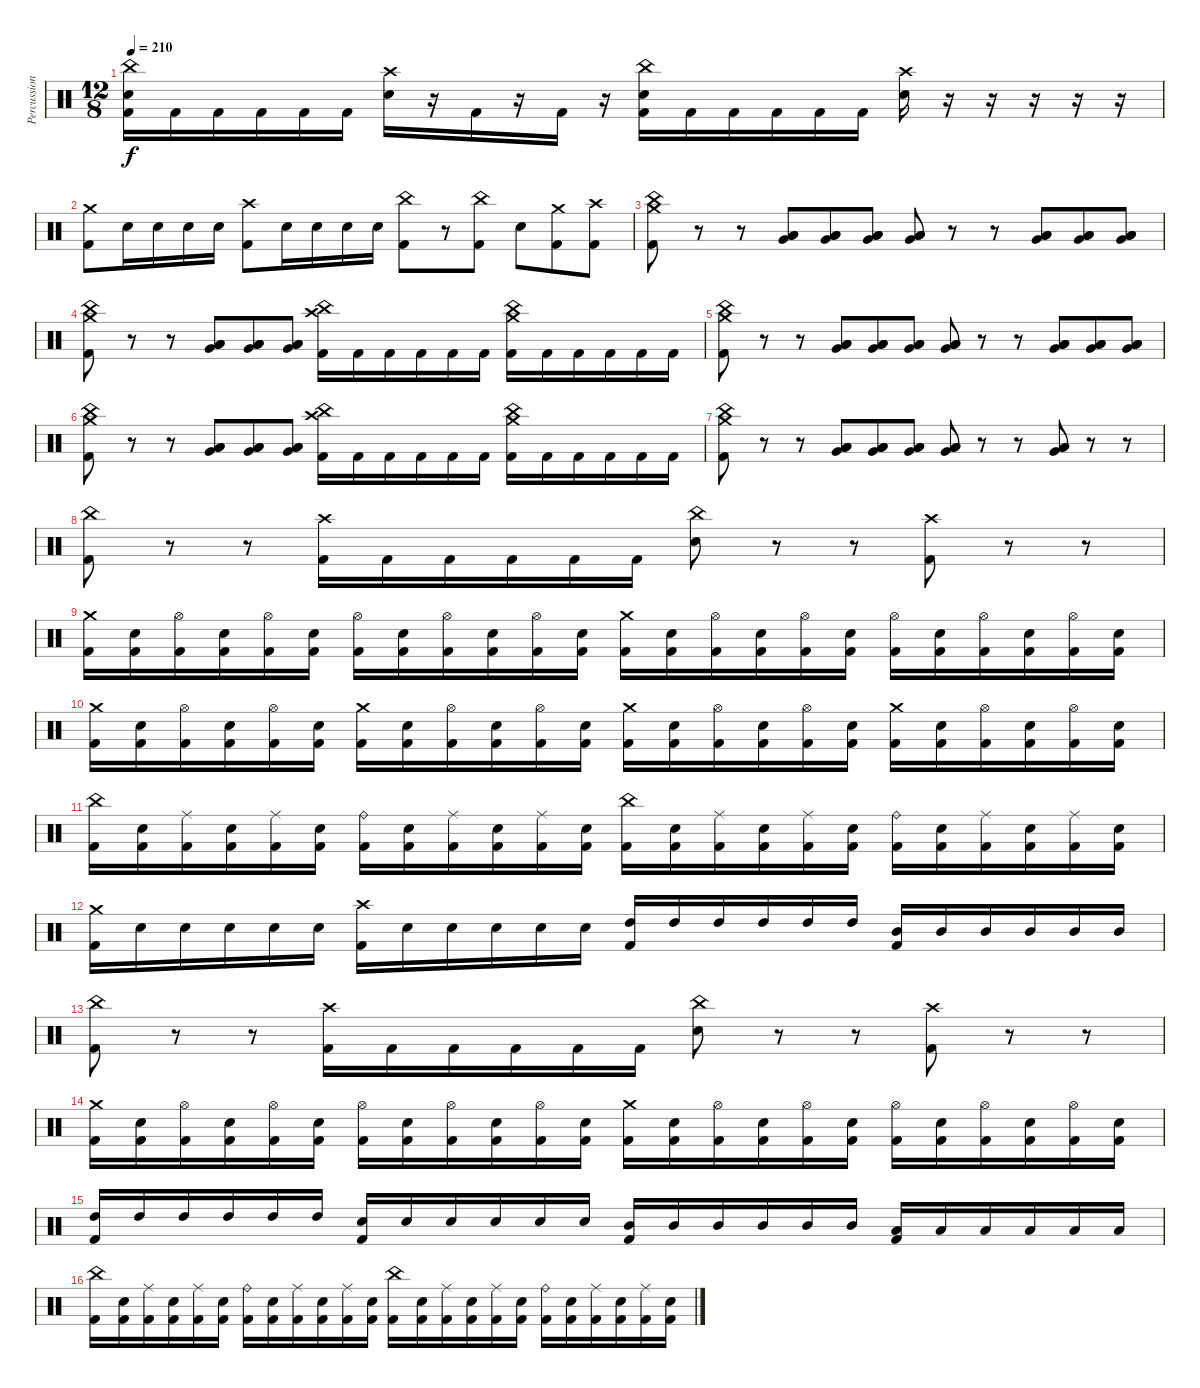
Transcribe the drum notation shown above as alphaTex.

\track ("Percussion" "Percussion") {instrument percussion}
\staff {score}
\articulation defaults
\ts (12 8)
\tempo 210
\clef neutral
\ks c
("China (hit)" "Electric Snare (hit)" "Kick (hit) 2").16{dy f} "Kick (hit) 2".16 "Kick (hit) 2".16 "Kick (hit) 2".16 "Kick (hit) 2".16 "Kick (hit) 2".16 ("Crash high (hit)" "Electric Snare (hit)").16 r.16 "Kick (hit) 2".16 r.16 "Kick (hit) 2".16 r.16 ("China (hit)" "Electric Snare (hit)" "Kick (hit) 2").16 "Kick (hit) 2".16 "Kick (hit) 2".16 "Kick (hit) 2".16 "Kick (hit) 2".16 "Kick (hit) 2".16 ("Crash high (hit)" "Electric Snare (hit)").16 r.16 r.16 r.16 r.16 r.16 |
("Crash medium (hit)" "Kick (hit) 2").8 "Electric Snare (hit)".16 "Electric Snare (hit)".16 "Electric Snare (hit)".16 "Electric Snare (hit)".16 ("Crash high (hit)" "Kick (hit) 2").8 "Electric Snare (hit)".16 "Electric Snare (hit)".16 "Electric Snare (hit)".16 "Electric Snare (hit)".16 ("China (hit)" "Kick (hit) 2").8 r.8 ("China (hit)" "Kick (hit) 2").8 "Electric Snare (hit)".8 ("Crash medium (hit)" "Kick (hit) 2").8 ("Crash high (hit)" "Kick (hit) 2").8 |
("China (hit)" "Crash medium (hit)" "Kick (hit) 2").8 r.8 r.8 ("Low Tom (hit)" "Low Floor Tom (hit)" "Very Low Tom (hit)").8 ("Low Tom (hit)" "Low Floor Tom (hit)" "Very Low Tom (hit)").8 ("Low Tom (hit)" "Low Floor Tom (hit)" "Very Low Tom (hit)").8 ("Low Tom (hit)" "Low Floor Tom (hit)" "Very Low Tom (hit)").8 r.8 r.8 ("Low Tom (hit)" "Low Floor Tom (hit)" "Very Low Tom (hit)").8 ("Low Tom (hit)" "Low Floor Tom (hit)" "Very Low Tom (hit)").8 ("Low Tom (hit)" "Low Floor Tom (hit)" "Very Low Tom (hit)").8 |
("China (hit)" "Crash medium (hit)" "Kick (hit) 2").8 r.8 r.8 ("Low Tom (hit)" "Low Floor Tom (hit)" "Very Low Tom (hit)").8 ("Low Tom (hit)" "Low Floor Tom (hit)" "Very Low Tom (hit)").8 ("Low Tom (hit)" "Low Floor Tom (hit)" "Very Low Tom (hit)").8 ("Crash high (hit)" "China (hit)" "Kick (hit) 2").16 "Kick (hit) 2".16 "Kick (hit) 2".16 "Kick (hit) 2".16 "Kick (hit) 2".16 "Kick (hit) 2".16 ("Crash medium (hit)" "China (hit)" "Kick (hit) 2").16 "Kick (hit) 2".16 "Kick (hit) 2".16 "Kick (hit) 2".16 "Kick (hit) 2".16 "Kick (hit) 2".16 |
("China (hit)" "Crash medium (hit)" "Kick (hit) 2").8 r.8 r.8 ("Low Tom (hit)" "Low Floor Tom (hit)" "Very Low Tom (hit)").8 ("Low Tom (hit)" "Low Floor Tom (hit)" "Very Low Tom (hit)").8 ("Low Tom (hit)" "Low Floor Tom (hit)" "Very Low Tom (hit)").8 ("Low Tom (hit)" "Low Floor Tom (hit)" "Very Low Tom (hit)").8 r.8 r.8 ("Low Tom (hit)" "Low Floor Tom (hit)" "Very Low Tom (hit)").8 ("Low Tom (hit)" "Low Floor Tom (hit)" "Very Low Tom (hit)").8 ("Low Tom (hit)" "Low Floor Tom (hit)" "Very Low Tom (hit)").8 |
("China (hit)" "Crash medium (hit)" "Kick (hit) 2").8 r.8 r.8 ("Low Tom (hit)" "Low Floor Tom (hit)" "Very Low Tom (hit)").8 ("Low Tom (hit)" "Low Floor Tom (hit)" "Very Low Tom (hit)").8 ("Low Tom (hit)" "Low Floor Tom (hit)" "Very Low Tom (hit)").8 ("Crash high (hit)" "China (hit)" "Kick (hit) 2").16 "Kick (hit) 2".16 "Kick (hit) 2".16 "Kick (hit) 2".16 "Kick (hit) 2".16 "Kick (hit) 2".16 ("Crash medium (hit)" "China (hit)" "Kick (hit) 2").16 "Kick (hit) 2".16 "Kick (hit) 2".16 "Kick (hit) 2".16 "Kick (hit) 2".16 "Kick (hit) 2".16 |
("China (hit)" "Crash medium (hit)" "Kick (hit) 2").8 r.8 r.8 ("Low Tom (hit)" "Low Floor Tom (hit)" "Very Low Tom (hit)").8 ("Low Tom (hit)" "Low Floor Tom (hit)" "Very Low Tom (hit)").8 ("Low Tom (hit)" "Low Floor Tom (hit)" "Very Low Tom (hit)").8 ("Low Tom (hit)" "Low Floor Tom (hit)" "Very Low Tom (hit)").8 r.8 r.8 ("Low Tom (hit)" "Low Floor Tom (hit)" "Very Low Tom (hit)").8 r.8 r.8 |
("China (hit)" "Kick (hit) 2").8 r.8 r.8 ("Crash high (hit)" "Kick (hit) 2").16 "Kick (hit) 2".16 "Kick (hit) 2".16 "Kick (hit) 2".16 "Kick (hit) 2".16 "Kick (hit) 2".16 ("China (hit)" "Electric Snare (hit)").8 r.8 r.8 ("Crash high (hit)" "Kick (hit) 2").8 r.8 r.8 |
("Crash medium (hit)" "Kick (hit) 2").16 ("Electric Snare (hit)" "Kick (hit) 2").16 ("Hi-Hat (open)" "Kick (hit) 2").16 ("Electric Snare (hit)" "Kick (hit) 2").16 ("Hi-Hat (open)" "Kick (hit) 2").16 ("Electric Snare (hit)" "Kick (hit) 2").16 ("Hi-Hat (open)" "Kick (hit) 2").16 ("Electric Snare (hit)" "Kick (hit) 2").16 ("Hi-Hat (open)" "Kick (hit) 2").16 ("Electric Snare (hit)" "Kick (hit) 2").16 ("Hi-Hat (open)" "Kick (hit) 2").16 ("Electric Snare (hit)" "Kick (hit) 2").16 ("Crash medium (hit)" "Kick (hit) 2").16 ("Electric Snare (hit)" "Kick (hit) 2").16 ("Hi-Hat (open)" "Kick (hit) 2").16 ("Electric Snare (hit)" "Kick (hit) 2").16 ("Hi-Hat (open)" "Kick (hit) 2").16 ("Electric Snare (hit)" "Kick (hit) 2").16 ("Hi-Hat (open)" "Kick (hit) 2").16 ("Electric Snare (hit)" "Kick (hit) 2").16 ("Hi-Hat (open)" "Kick (hit) 2").16 ("Electric Snare (hit)" "Kick (hit) 2").16 ("Hi-Hat (open)" "Kick (hit) 2").16 ("Electric Snare (hit)" "Kick (hit) 2").16 |
("Crash medium (hit)" "Kick (hit) 2").16 ("Electric Snare (hit)" "Kick (hit) 2").16 ("Hi-Hat (open)" "Kick (hit) 2").16 ("Electric Snare (hit)" "Kick (hit) 2").16 ("Hi-Hat (open)" "Kick (hit) 2").16 ("Electric Snare (hit)" "Kick (hit) 2").16 ("Crash medium (hit)" "Kick (hit) 2").16 ("Electric Snare (hit)" "Kick (hit) 2").16 ("Hi-Hat (open)" "Kick (hit) 2").16 ("Electric Snare (hit)" "Kick (hit) 2").16 ("Hi-Hat (open)" "Kick (hit) 2").16 ("Electric Snare (hit)" "Kick (hit) 2").16 ("Crash medium (hit)" "Kick (hit) 2").16 ("Electric Snare (hit)" "Kick (hit) 2").16 ("Hi-Hat (open)" "Kick (hit) 2").16 ("Electric Snare (hit)" "Kick (hit) 2").16 ("Hi-Hat (open)" "Kick (hit) 2").16 ("Electric Snare (hit)" "Kick (hit) 2").16 ("Crash medium (hit)" "Kick (hit) 2").16 ("Electric Snare (hit)" "Kick (hit) 2").16 ("Hi-Hat (open)" "Kick (hit) 2").16 ("Electric Snare (hit)" "Kick (hit) 2").16 ("Hi-Hat (open)" "Kick (hit) 2").16 ("Electric Snare (hit)" "Kick (hit) 2").16 |
("China (hit)" "Kick (hit) 2").16 ("Electric Snare (hit)" "Kick (hit) 2").16 ("Ride (middle)" "Kick (hit) 2").16 ("Electric Snare (hit)" "Kick (hit) 2").16 ("Ride (middle)" "Kick (hit) 2").16 ("Electric Snare (hit)" "Kick (hit) 2").16 ("Ride (bell)" "Kick (hit) 2").16 ("Electric Snare (hit)" "Kick (hit) 2").16 ("Ride (middle)" "Kick (hit) 2").16 ("Electric Snare (hit)" "Kick (hit) 2").16 ("Ride (middle)" "Kick (hit) 2").16 ("Electric Snare (hit)" "Kick (hit) 2").16 ("China (hit)" "Kick (hit) 2").16 ("Electric Snare (hit)" "Kick (hit) 2").16 ("Ride (middle)" "Kick (hit) 2").16 ("Electric Snare (hit)" "Kick (hit) 2").16 ("Ride (middle)" "Kick (hit) 2").16 ("Electric Snare (hit)" "Kick (hit) 2").16 ("Ride (bell)" "Kick (hit) 2").16 ("Electric Snare (hit)" "Kick (hit) 2").16 ("Ride (middle)" "Kick (hit) 2").16 ("Electric Snare (hit)" "Kick (hit) 2").16 ("Ride (middle)" "Kick (hit) 2").16 ("Electric Snare (hit)" "Kick (hit) 2").16 |
("Crash medium (hit)" "Kick (hit) 2").16 "Electric Snare (hit)".16 "Electric Snare (hit)".16 "Electric Snare (hit)".16 "Electric Snare (hit)".16 "Electric Snare (hit)".16 ("Crash high (hit)" "Kick (hit) 2").16 "Electric Snare (hit)".16 "Electric Snare (hit)".16 "Electric Snare (hit)".16 "Electric Snare (hit)".16 "Electric Snare (hit)".16 ("High Tom (hit)" "Kick (hit) 2").16 "High Tom (hit)".16 "High Tom (hit)".16 "High Tom (hit)".16 "High Tom (hit)".16 "High Tom (hit)".16 ("Mid Tom (hit)" "Kick (hit) 2").16 "Mid Tom (hit)".16 "Mid Tom (hit)".16 "Mid Tom (hit)".16 "Mid Tom (hit)".16 "Mid Tom (hit)".16 |
("China (hit)" "Kick (hit) 2").8 r.8 r.8 ("Crash high (hit)" "Kick (hit) 2").16 "Kick (hit) 2".16 "Kick (hit) 2".16 "Kick (hit) 2".16 "Kick (hit) 2".16 "Kick (hit) 2".16 ("China (hit)" "Electric Snare (hit)").8 r.8 r.8 ("Crash high (hit)" "Kick (hit) 2").8 r.8 r.8 |
("Crash medium (hit)" "Kick (hit) 2").16 ("Electric Snare (hit)" "Kick (hit) 2").16 ("Hi-Hat (open)" "Kick (hit) 2").16 ("Electric Snare (hit)" "Kick (hit) 2").16 ("Hi-Hat (open)" "Kick (hit) 2").16 ("Electric Snare (hit)" "Kick (hit) 2").16 ("Hi-Hat (open)" "Kick (hit) 2").16 ("Electric Snare (hit)" "Kick (hit) 2").16 ("Hi-Hat (open)" "Kick (hit) 2").16 ("Electric Snare (hit)" "Kick (hit) 2").16 ("Hi-Hat (open)" "Kick (hit) 2").16 ("Electric Snare (hit)" "Kick (hit) 2").16 ("Crash medium (hit)" "Kick (hit) 2").16 ("Electric Snare (hit)" "Kick (hit) 2").16 ("Hi-Hat (open)" "Kick (hit) 2").16 ("Electric Snare (hit)" "Kick (hit) 2").16 ("Hi-Hat (open)" "Kick (hit) 2").16 ("Electric Snare (hit)" "Kick (hit) 2").16 ("Hi-Hat (open)" "Kick (hit) 2").16 ("Electric Snare (hit)" "Kick (hit) 2").16 ("Hi-Hat (open)" "Kick (hit) 2").16 ("Electric Snare (hit)" "Kick (hit) 2").16 ("Hi-Hat (open)" "Kick (hit) 2").16 ("Electric Snare (hit)" "Kick (hit) 2").16 |
("High Tom (hit)" "Kick (hit) 2").16 "High Tom (hit)".16 "High Tom (hit)".16 "High Tom (hit)".16 "High Tom (hit)".16 "High Tom (hit)".16 ("Electric Snare (hit)" "Kick (hit) 2").16 "Electric Snare (hit)".16 "Electric Snare (hit)".16 "Electric Snare (hit)".16 "Electric Snare (hit)".16 "Electric Snare (hit)".16 ("Mid Tom (hit)" "Kick (hit) 2").16 "Mid Tom (hit)".16 "Mid Tom (hit)".16 "Mid Tom (hit)".16 "Mid Tom (hit)".16 "Mid Tom (hit)".16 ("Low Tom (hit)" "Kick (hit) 2").16 "Low Tom (hit)".16 "Low Tom (hit)".16 "Low Tom (hit)".16 "Low Tom (hit)".16 "Low Tom (hit)".16 |
("China (hit)" "Kick (hit) 2").16 ("Electric Snare (hit)" "Kick (hit) 2").16 ("Ride (middle)" "Kick (hit) 2").16 ("Electric Snare (hit)" "Kick (hit) 2").16 ("Ride (middle)" "Kick (hit) 2").16 ("Electric Snare (hit)" "Kick (hit) 2").16 ("Ride (bell)" "Kick (hit) 2").16 ("Electric Snare (hit)" "Kick (hit) 2").16 ("Ride (middle)" "Kick (hit) 2").16 ("Electric Snare (hit)" "Kick (hit) 2").16 ("Ride (middle)" "Kick (hit) 2").16 ("Electric Snare (hit)" "Kick (hit) 2").16 ("China (hit)" "Kick (hit) 2").16 ("Electric Snare (hit)" "Kick (hit) 2").16 ("Ride (middle)" "Kick (hit) 2").16 ("Electric Snare (hit)" "Kick (hit) 2").16 ("Ride (middle)" "Kick (hit) 2").16 ("Electric Snare (hit)" "Kick (hit) 2").16 ("Ride (bell)" "Kick (hit) 2").16 ("Electric Snare (hit)" "Kick (hit) 2").16 ("Ride (middle)" "Kick (hit) 2").16 ("Electric Snare (hit)" "Kick (hit) 2").16 ("Ride (middle)" "Kick (hit) 2").16 ("Electric Snare (hit)" "Kick (hit) 2").16
